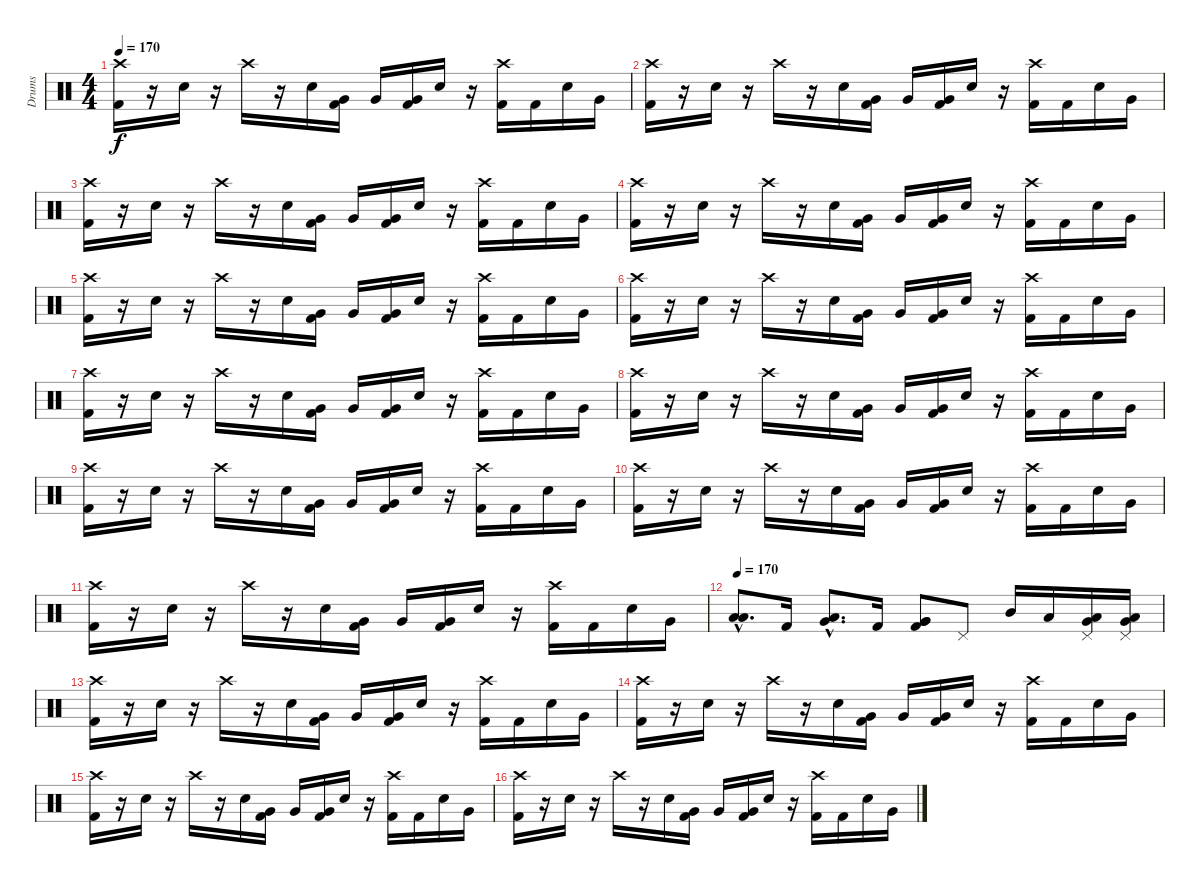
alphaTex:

\track ("Drums" "Drums") {instrument percussion}
\staff {score}
\articulation defaults
\ts (4 4)
\tempo 170
\clef neutral
\ks c
("Crash high (hit)" "Kick (hit) 2").16{dy f} r.16 "Electric Snare (hit)".16 r.16 "Crash high (hit)".16 r.16 "Electric Snare (hit)".16 ("Very Low Tom (hit)" "Kick (hit) 2").16 "Very Low Tom (hit)".16 ("Very Low Tom (hit)" "Kick (hit) 2").16 "Electric Snare (hit)".16 r.16 ("Crash high (hit)" "Kick (hit) 2").16 "Kick (hit) 2".16 "Electric Snare (hit)".16 "Very Low Tom (hit)".16 |
("Crash high (hit)" "Kick (hit) 2").16 r.16 "Electric Snare (hit)".16 r.16 "Crash high (hit)".16 r.16 "Electric Snare (hit)".16 ("Very Low Tom (hit)" "Kick (hit) 2").16 "Very Low Tom (hit)".16 ("Very Low Tom (hit)" "Kick (hit) 2").16 "Electric Snare (hit)".16 r.16 ("Crash high (hit)" "Kick (hit) 2").16 "Kick (hit) 2".16 "Electric Snare (hit)".16 "Very Low Tom (hit)".16 |
("Crash high (hit)" "Kick (hit) 2").16 r.16 "Electric Snare (hit)".16 r.16 "Crash high (hit)".16 r.16 "Electric Snare (hit)".16 ("Very Low Tom (hit)" "Kick (hit) 2").16 "Very Low Tom (hit)".16 ("Very Low Tom (hit)" "Kick (hit) 2").16 "Electric Snare (hit)".16 r.16 ("Crash high (hit)" "Kick (hit) 2").16 "Kick (hit) 2".16 "Electric Snare (hit)".16 "Very Low Tom (hit)".16 |
("Crash high (hit)" "Kick (hit) 2").16 r.16 "Electric Snare (hit)".16 r.16 "Crash high (hit)".16 r.16 "Electric Snare (hit)".16 ("Very Low Tom (hit)" "Kick (hit) 2").16 "Very Low Tom (hit)".16 ("Very Low Tom (hit)" "Kick (hit) 2").16 "Electric Snare (hit)".16 r.16 ("Crash high (hit)" "Kick (hit) 2").16 "Kick (hit) 2".16 "Electric Snare (hit)".16 "Very Low Tom (hit)".16 |
("Crash high (hit)" "Kick (hit) 2").16 r.16 "Electric Snare (hit)".16 r.16 "Crash high (hit)".16 r.16 "Electric Snare (hit)".16 ("Very Low Tom (hit)" "Kick (hit) 2").16 "Very Low Tom (hit)".16 ("Very Low Tom (hit)" "Kick (hit) 2").16 "Electric Snare (hit)".16 r.16 ("Crash high (hit)" "Kick (hit) 2").16 "Kick (hit) 2".16 "Electric Snare (hit)".16 "Very Low Tom (hit)".16 |
("Crash high (hit)" "Kick (hit) 2").16 r.16 "Electric Snare (hit)".16 r.16 "Crash high (hit)".16 r.16 "Electric Snare (hit)".16 ("Very Low Tom (hit)" "Kick (hit) 2").16 "Very Low Tom (hit)".16 ("Very Low Tom (hit)" "Kick (hit) 2").16 "Electric Snare (hit)".16 r.16 ("Crash high (hit)" "Kick (hit) 2").16 "Kick (hit) 2".16 "Electric Snare (hit)".16 "Very Low Tom (hit)".16 |
("Crash high (hit)" "Kick (hit) 2").16 r.16 "Electric Snare (hit)".16 r.16 "Crash high (hit)".16 r.16 "Electric Snare (hit)".16 ("Very Low Tom (hit)" "Kick (hit) 2").16 "Very Low Tom (hit)".16 ("Very Low Tom (hit)" "Kick (hit) 2").16 "Electric Snare (hit)".16 r.16 ("Crash high (hit)" "Kick (hit) 2").16 "Kick (hit) 2".16 "Electric Snare (hit)".16 "Very Low Tom (hit)".16 |
("Crash high (hit)" "Kick (hit) 2").16 r.16 "Electric Snare (hit)".16 r.16 "Crash high (hit)".16 r.16 "Electric Snare (hit)".16 ("Very Low Tom (hit)" "Kick (hit) 2").16 "Very Low Tom (hit)".16 ("Very Low Tom (hit)" "Kick (hit) 2").16 "Electric Snare (hit)".16 r.16 ("Crash high (hit)" "Kick (hit) 2").16 "Kick (hit) 2".16 "Electric Snare (hit)".16 "Very Low Tom (hit)".16 |
("Crash high (hit)" "Kick (hit) 2").16 r.16 "Electric Snare (hit)".16 r.16 "Crash high (hit)".16 r.16 "Electric Snare (hit)".16 ("Very Low Tom (hit)" "Kick (hit) 2").16 "Very Low Tom (hit)".16 ("Very Low Tom (hit)" "Kick (hit) 2").16 "Electric Snare (hit)".16 r.16 ("Crash high (hit)" "Kick (hit) 2").16 "Kick (hit) 2".16 "Electric Snare (hit)".16 "Very Low Tom (hit)".16 |
("Crash high (hit)" "Kick (hit) 2").16 r.16 "Electric Snare (hit)".16 r.16 "Crash high (hit)".16 r.16 "Electric Snare (hit)".16 ("Very Low Tom (hit)" "Kick (hit) 2").16 "Very Low Tom (hit)".16 ("Very Low Tom (hit)" "Kick (hit) 2").16 "Electric Snare (hit)".16 r.16 ("Crash high (hit)" "Kick (hit) 2").16 "Kick (hit) 2".16 "Electric Snare (hit)".16 "Very Low Tom (hit)".16 |
("Crash high (hit)" "Kick (hit) 2").16 r.16 "Electric Snare (hit)".16 r.16 "Crash high (hit)".16 r.16 "Electric Snare (hit)".16 ("Very Low Tom (hit)" "Kick (hit) 2").16 "Very Low Tom (hit)".16 ("Very Low Tom (hit)" "Kick (hit) 2").16 "Electric Snare (hit)".16 r.16 ("Crash high (hit)" "Kick (hit) 2").16 "Kick (hit) 2".16 "Electric Snare (hit)".16 "Very Low Tom (hit)".16 |
\tempo 170
("Low Tom (hit)"{hac} "Low Floor Tom (hit)"{hac}).8{d} "Kick (hit) 2".16 ("Low Tom (hit)"{hac} "Very Low Tom (hit)"{hac}).8{d} "Kick (hit) 2".16 ("Very Low Tom (hit)" "Kick (hit) 2" "Very Low Tom (hit)").8 "Pedal Hi-Hat (hit)".8 "Mid Tom (hit)".16 "Low Tom (hit)".16 ("Very Low Tom (hit)" "Pedal Hi-Hat (hit)" "Low Floor Tom (hit)").16 ("Very Low Tom (hit)" "Pedal Hi-Hat (hit)" "Low Floor Tom (hit)").16 |
("Crash high (hit)" "Kick (hit) 2").16 r.16 "Electric Snare (hit)".16 r.16 "Crash high (hit)".16 r.16 "Electric Snare (hit)".16 ("Very Low Tom (hit)" "Kick (hit) 2").16 "Very Low Tom (hit)".16 ("Very Low Tom (hit)" "Kick (hit) 2").16 "Electric Snare (hit)".16 r.16 ("Crash high (hit)" "Kick (hit) 2").16 "Kick (hit) 2".16 "Electric Snare (hit)".16 "Very Low Tom (hit)".16 |
("Crash high (hit)" "Kick (hit) 2").16 r.16 "Electric Snare (hit)".16 r.16 "Crash high (hit)".16 r.16 "Electric Snare (hit)".16 ("Very Low Tom (hit)" "Kick (hit) 2").16 "Very Low Tom (hit)".16 ("Very Low Tom (hit)" "Kick (hit) 2").16 "Electric Snare (hit)".16 r.16 ("Crash high (hit)" "Kick (hit) 2").16 "Kick (hit) 2".16 "Electric Snare (hit)".16 "Very Low Tom (hit)".16 |
("Crash high (hit)" "Kick (hit) 2").16 r.16 "Electric Snare (hit)".16 r.16 "Crash high (hit)".16 r.16 "Electric Snare (hit)".16 ("Very Low Tom (hit)" "Kick (hit) 2").16 "Very Low Tom (hit)".16 ("Very Low Tom (hit)" "Kick (hit) 2").16 "Electric Snare (hit)".16 r.16 ("Crash high (hit)" "Kick (hit) 2").16 "Kick (hit) 2".16 "Electric Snare (hit)".16 "Very Low Tom (hit)".16 |
("Crash high (hit)" "Kick (hit) 2").16 r.16 "Electric Snare (hit)".16 r.16 "Crash high (hit)".16 r.16 "Electric Snare (hit)".16 ("Very Low Tom (hit)" "Kick (hit) 2").16 "Very Low Tom (hit)".16 ("Very Low Tom (hit)" "Kick (hit) 2").16 "Electric Snare (hit)".16 r.16 ("Crash high (hit)" "Kick (hit) 2").16 "Kick (hit) 2".16 "Electric Snare (hit)".16 "Very Low Tom (hit)".16
